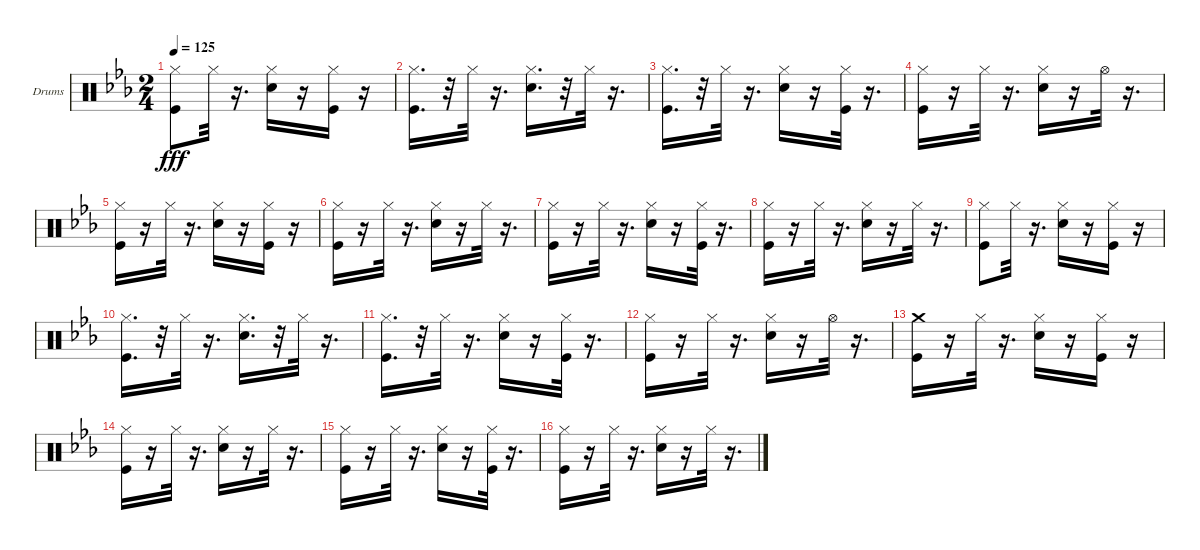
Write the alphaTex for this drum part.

\bracketExtendMode groupsimilarinstruments
\firstSystemTrackNameOrientation horizontal
\otherSystemsTrackNameOrientation horizontal
\track ("Drumkit" "Drums") {instrument percussion}
\staff {score}
\articulation defaults
\ts (2 4)
\tempo 125
\clef neutral
\ks cminor
("Kick (hit)" "Hi-Hat (closed)").8{dy fff} "Hi-Hat (closed)".32 r.16{d} ("Snare (hit) 2" "Hi-Hat (closed)").16 r.16 ("Kick (hit)" "Hi-Hat (closed)").16 r.16 |
("Kick (hit)" "Hi-Hat (closed)").16{d} r.32 "Hi-Hat (closed)".32 r.16{d} ("Snare (hit) 2" "Hi-Hat (closed)").16{d} r.32 "Hi-Hat (closed)".32 r.16{d} |
("Kick (hit)" "Hi-Hat (closed)").16{d} r.32 "Hi-Hat (closed)".32 r.16{d} ("Snare (hit) 2" "Hi-Hat (closed)").16 r.16 ("Kick (hit)" "Hi-Hat (closed)").32 r.16{d} |
("Kick (hit)" "Hi-Hat (closed)").16 r.16 "Hi-Hat (closed)".32 r.16{d} ("Snare (hit) 2" "Hi-Hat (closed)").16 r.16 "Hi-Hat (open)".32 r.16{d} |
("Kick (hit)" "Hi-Hat (closed)").16 r.16 "Hi-Hat (closed)".32 r.16{d} ("Snare (hit) 2" "Hi-Hat (closed)").16 r.16 ("Kick (hit)" "Hi-Hat (closed)").16 r.16 |
("Kick (hit)" "Hi-Hat (closed)").16 r.16 "Hi-Hat (closed)".32 r.16{d} ("Snare (hit) 2" "Hi-Hat (closed)").16 r.16 "Hi-Hat (closed)".32 r.16{d} |
("Kick (hit)" "Hi-Hat (closed)").16 r.16 "Hi-Hat (closed)".32 r.16{d} ("Snare (hit) 2" "Hi-Hat (closed)").16 r.16 ("Kick (hit)" "Hi-Hat (closed)").32 r.16{d} |
("Kick (hit)" "Hi-Hat (closed)").16 r.16 "Hi-Hat (closed)".32 r.16{d} ("Snare (hit) 2" "Hi-Hat (closed)").16 r.16 "Hi-Hat (closed)".32 r.16{d} |
("Kick (hit)" "Hi-Hat (closed)").8 "Hi-Hat (closed)".32 r.16{d} ("Snare (hit) 2" "Hi-Hat (closed)").16 r.16 ("Kick (hit)" "Hi-Hat (closed)").16 r.16 |
("Kick (hit)" "Hi-Hat (closed)").16{d} r.32 "Hi-Hat (closed)".32 r.16{d} ("Snare (hit) 2" "Hi-Hat (closed)").16{d} r.32 "Hi-Hat (closed)".32 r.16{d} |
("Kick (hit)" "Hi-Hat (closed)").16{d} r.32 "Hi-Hat (closed)".32 r.16{d} ("Snare (hit) 2" "Hi-Hat (closed)").16 r.16 ("Kick (hit)" "Hi-Hat (closed)").32 r.16{d} |
("Kick (hit)" "Hi-Hat (closed)").16 r.16 "Hi-Hat (closed)".32 r.16{d} ("Snare (hit) 2" "Hi-Hat (closed)").16 r.16 "Hi-Hat (open)".32 r.16{d} |
("Kick (hit)" "Crash medium (hit)").16 r.16 "Hi-Hat (closed)".32 r.16{d} ("Snare (hit) 2" "Hi-Hat (closed)").16 r.16 ("Kick (hit)" "Hi-Hat (closed)").16 r.16 |
("Kick (hit)" "Hi-Hat (closed)").16 r.16 "Hi-Hat (closed)".32 r.16{d} ("Snare (hit) 2" "Hi-Hat (closed)").16 r.16 "Hi-Hat (closed)".32 r.16{d} |
("Kick (hit)" "Hi-Hat (closed)").16 r.16 "Hi-Hat (closed)".32 r.16{d} ("Snare (hit) 2" "Hi-Hat (closed)").16 r.16 ("Kick (hit)" "Hi-Hat (closed)").32 r.16{d} |
("Kick (hit)" "Hi-Hat (closed)").16 r.16 "Hi-Hat (closed)".32 r.16{d} ("Snare (hit) 2" "Hi-Hat (closed)").16 r.16 "Hi-Hat (closed)".32 r.16{d}
